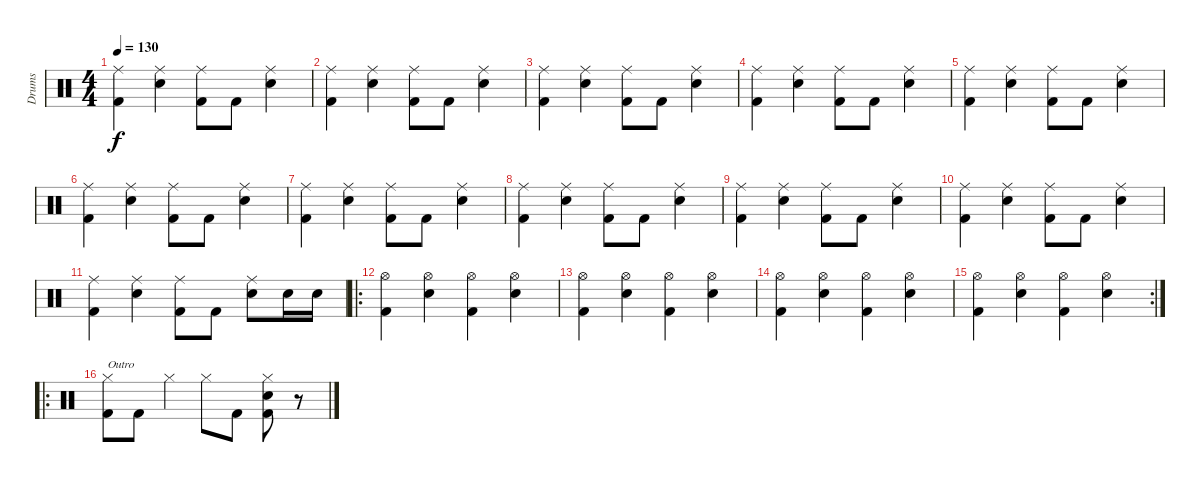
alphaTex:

\track ("Drums" "Drums") {instrument percussion}
\staff {score}
\articulation defaults
\ts (4 4)
\tempo 130
\clef neutral
\ks c
("Ride (middle)" "Kick (hit) 2").4{dy f} ("Ride (middle)" "Snare (hit) 2").4 ("Ride (middle)" "Kick (hit) 2").8 "Kick (hit) 2".8 ("Ride (middle)" "Snare (hit) 2").4 |
("Ride (middle)" "Kick (hit) 2").4 ("Ride (middle)" "Snare (hit) 2").4 ("Ride (middle)" "Kick (hit) 2").8 "Kick (hit) 2".8 ("Ride (middle)" "Snare (hit) 2").4 |
("Ride (middle)" "Kick (hit) 2").4 ("Ride (middle)" "Snare (hit) 2").4 ("Ride (middle)" "Kick (hit) 2").8 "Kick (hit) 2".8 ("Ride (middle)" "Snare (hit) 2").4 |
("Ride (middle)" "Kick (hit) 2").4 ("Ride (middle)" "Snare (hit) 2").4 ("Ride (middle)" "Kick (hit) 2").8 "Kick (hit) 2".8 ("Ride (middle)" "Snare (hit) 2").4 |
("Ride (middle)" "Kick (hit) 2").4 ("Ride (middle)" "Snare (hit) 2").4 ("Ride (middle)" "Kick (hit) 2").8 "Kick (hit) 2".8 ("Ride (middle)" "Snare (hit) 2").4 |
("Ride (middle)" "Kick (hit) 2").4 ("Ride (middle)" "Snare (hit) 2").4 ("Ride (middle)" "Kick (hit) 2").8 "Kick (hit) 2".8 ("Ride (middle)" "Snare (hit) 2").4 |
("Ride (middle)" "Kick (hit) 2").4 ("Ride (middle)" "Snare (hit) 2").4 ("Ride (middle)" "Kick (hit) 2").8 "Kick (hit) 2".8 ("Ride (middle)" "Snare (hit) 2").4 |
("Ride (middle)" "Kick (hit) 2").4 ("Ride (middle)" "Snare (hit) 2").4 ("Ride (middle)" "Kick (hit) 2").8 "Kick (hit) 2".8 ("Ride (middle)" "Snare (hit) 2").4 |
("Ride (middle)" "Kick (hit) 2").4 ("Ride (middle)" "Snare (hit) 2").4 ("Ride (middle)" "Kick (hit) 2").8 "Kick (hit) 2".8 ("Ride (middle)" "Snare (hit) 2").4 |
("Ride (middle)" "Kick (hit) 2").4 ("Ride (middle)" "Snare (hit) 2").4 ("Ride (middle)" "Kick (hit) 2").8 "Kick (hit) 2".8 ("Ride (middle)" "Snare (hit) 2").4 |
("Ride (middle)" "Kick (hit) 2").4 ("Ride (middle)" "Snare (hit) 2").4 ("Ride (middle)" "Kick (hit) 2").8 "Kick (hit) 2".8 ("Ride (middle)" "Snare (hit) 2").8 "Snare (hit) 2".16 "Snare (hit) 2".16 |
\ro
("Hi-Hat (open)" "Kick (hit) 2").4 ("Hi-Hat (open)" "Snare (hit) 2").4 ("Hi-Hat (open)" "Kick (hit) 2").4 ("Hi-Hat (open)" "Snare (hit) 2").4 |
("Hi-Hat (open)" "Kick (hit) 2").4 ("Hi-Hat (open)" "Snare (hit) 2").4 ("Hi-Hat (open)" "Kick (hit) 2").4 ("Hi-Hat (open)" "Snare (hit) 2").4 |
("Hi-Hat (open)" "Kick (hit) 2").4 ("Hi-Hat (open)" "Snare (hit) 2").4 ("Hi-Hat (open)" "Kick (hit) 2").4 ("Hi-Hat (open)" "Snare (hit) 2").4 |
\rc 2
("Hi-Hat (open)" "Kick (hit) 2").4 ("Hi-Hat (open)" "Snare (hit) 2").4 ("Hi-Hat (open)" "Kick (hit) 2").4 ("Hi-Hat (open)" "Snare (hit) 2").4 |
\ro
("Hi-Hat (closed)" "Kick (hit) 2").8{txt "Outro"} "Kick (hit) 2".8 "Hi-Hat (closed)".4 "Hi-Hat (closed)".8 "Kick (hit) 2".8 ("Hi-Hat (closed)" "Snare (hit) 2" "Kick (hit) 2").8 r.8
